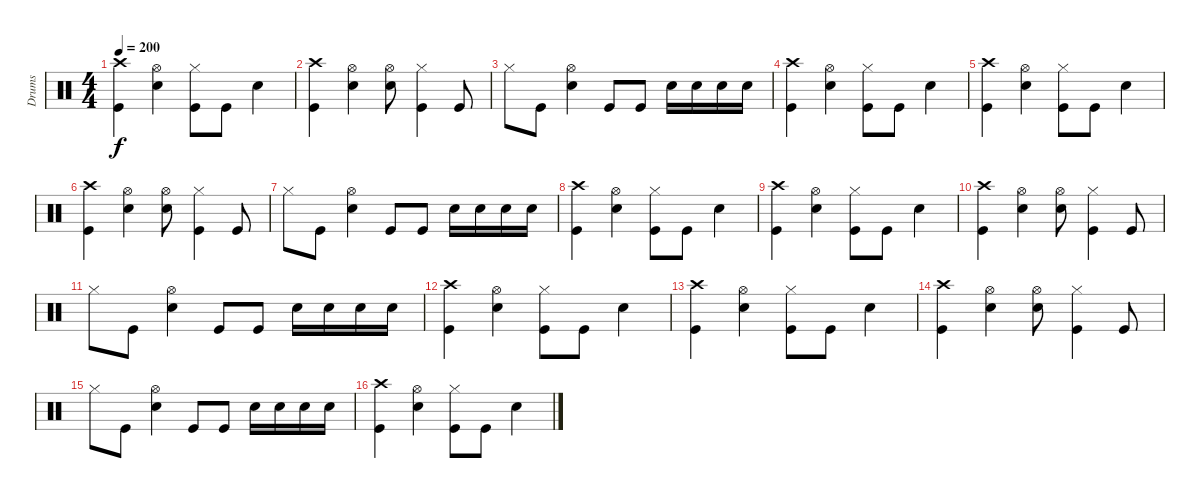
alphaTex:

\track ("Drums" "Drums") {instrument percussion}
\staff {score}
\articulation defaults
\ts (4 4)
\tempo 200
\clef neutral
\ks c
("Crash high (hit)" "Kick (hit)").4{dy f} ("Hi-Hat (open)" "Snare (hit) 2").4 ("Hi-Hat (closed)" "Kick (hit)").8 "Kick (hit)".8 "Snare (hit) 2".4 |
("Crash high (hit)" "Kick (hit)").4 ("Hi-Hat (open)" "Snare (hit) 2").4 ("Hi-Hat (open)" "Snare (hit) 2").8 ("Hi-Hat (closed)" "Kick (hit)").4 "Kick (hit)".8 |
"Hi-Hat (closed)".8 "Kick (hit)".8 ("Hi-Hat (open)" "Snare (hit) 2").4 "Kick (hit)".8 "Kick (hit)".8 "Snare (hit) 2".16 "Snare (hit) 2".16 "Snare (hit) 2".16 "Snare (hit) 2".16 |
("Crash high (hit)" "Kick (hit)").4 ("Hi-Hat (open)" "Snare (hit) 2").4 ("Hi-Hat (closed)" "Kick (hit)").8 "Kick (hit)".8 "Snare (hit) 2".4 |
("Crash high (hit)" "Kick (hit)").4 ("Hi-Hat (open)" "Snare (hit) 2").4 ("Hi-Hat (closed)" "Kick (hit)").8 "Kick (hit)".8 "Snare (hit) 2".4 |
("Crash high (hit)" "Kick (hit)").4 ("Hi-Hat (open)" "Snare (hit) 2").4 ("Hi-Hat (open)" "Snare (hit) 2").8 ("Hi-Hat (closed)" "Kick (hit)").4 "Kick (hit)".8 |
"Hi-Hat (closed)".8 "Kick (hit)".8 ("Hi-Hat (open)" "Snare (hit) 2").4 "Kick (hit)".8 "Kick (hit)".8 "Snare (hit) 2".16 "Snare (hit) 2".16 "Snare (hit) 2".16 "Snare (hit) 2".16 |
("Crash high (hit)" "Kick (hit)").4 ("Hi-Hat (open)" "Snare (hit) 2").4 ("Hi-Hat (closed)" "Kick (hit)").8 "Kick (hit)".8 "Snare (hit) 2".4 |
("Crash high (hit)" "Kick (hit)").4 ("Hi-Hat (open)" "Snare (hit) 2").4 ("Hi-Hat (closed)" "Kick (hit)").8 "Kick (hit)".8 "Snare (hit) 2".4 |
("Crash high (hit)" "Kick (hit)").4 ("Hi-Hat (open)" "Snare (hit) 2").4 ("Hi-Hat (open)" "Snare (hit) 2").8 ("Hi-Hat (closed)" "Kick (hit)").4 "Kick (hit)".8 |
"Hi-Hat (closed)".8 "Kick (hit)".8 ("Hi-Hat (open)" "Snare (hit) 2").4 "Kick (hit)".8 "Kick (hit)".8 "Snare (hit) 2".16 "Snare (hit) 2".16 "Snare (hit) 2".16 "Snare (hit) 2".16 |
("Crash high (hit)" "Kick (hit)").4 ("Hi-Hat (open)" "Snare (hit) 2").4 ("Hi-Hat (closed)" "Kick (hit)").8 "Kick (hit)".8 "Snare (hit) 2".4 |
("Crash high (hit)" "Kick (hit)").4 ("Hi-Hat (open)" "Snare (hit) 2").4 ("Hi-Hat (closed)" "Kick (hit)").8 "Kick (hit)".8 "Snare (hit) 2".4 |
("Crash high (hit)" "Kick (hit)").4 ("Hi-Hat (open)" "Snare (hit) 2").4 ("Hi-Hat (open)" "Snare (hit) 2").8 ("Hi-Hat (closed)" "Kick (hit)").4 "Kick (hit)".8 |
"Hi-Hat (closed)".8 "Kick (hit)".8 ("Hi-Hat (open)" "Snare (hit) 2").4 "Kick (hit)".8 "Kick (hit)".8 "Snare (hit) 2".16 "Snare (hit) 2".16 "Snare (hit) 2".16 "Snare (hit) 2".16 |
("Crash high (hit)" "Kick (hit)").4 ("Hi-Hat (open)" "Snare (hit) 2").4 ("Hi-Hat (closed)" "Kick (hit)").8 "Kick (hit)".8 "Snare (hit) 2".4
